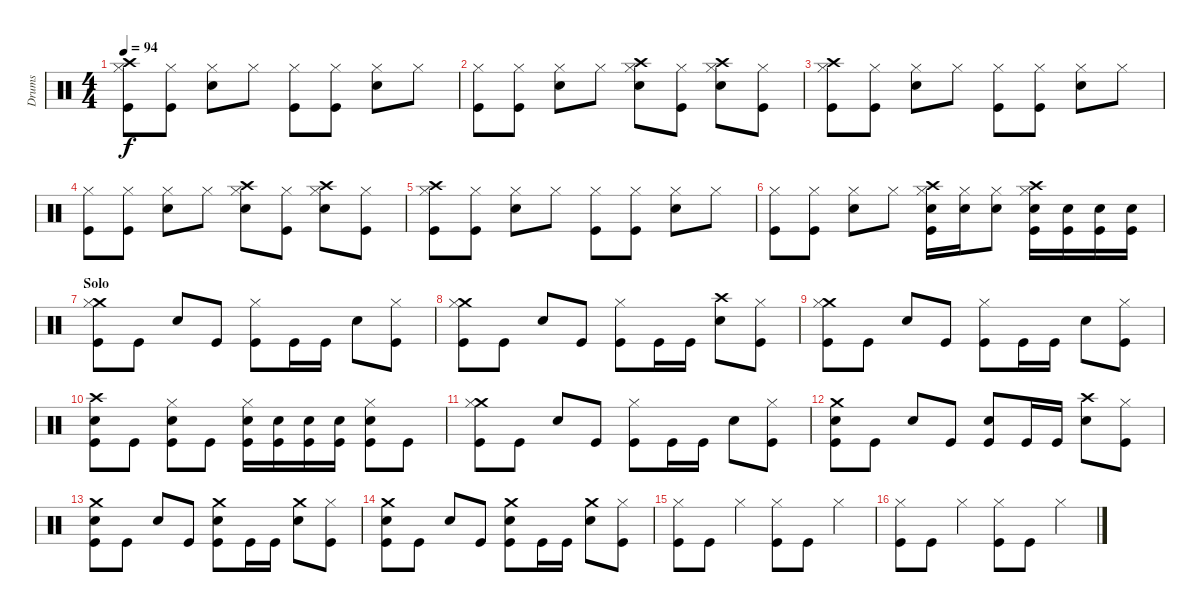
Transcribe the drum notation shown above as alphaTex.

\track ("Drums" "Drums") {instrument percussion}
\staff {score}
\articulation defaults
\ts (4 4)
\tempo 94
\clef neutral
\ks c
("Crash high (hit)" "Hi-Hat (closed)" "Kick (hit)").8{dy f} ("Hi-Hat (closed)" "Kick (hit)").8 ("Hi-Hat (closed)" "Snare (hit) 2").8 "Hi-Hat (closed)".8 ("Hi-Hat (closed)" "Kick (hit)").8 ("Hi-Hat (closed)" "Kick (hit)").8 ("Hi-Hat (closed)" "Snare (hit) 2").8 "Hi-Hat (closed)".8 |
("Hi-Hat (closed)" "Kick (hit)").8 ("Hi-Hat (closed)" "Kick (hit)").8 ("Hi-Hat (closed)" "Snare (hit) 2").8 "Hi-Hat (closed)".8 ("Crash high (hit)" "Hi-Hat (closed)" "Snare (hit) 2").8 ("Hi-Hat (closed)" "Kick (hit)").8 ("Crash high (hit)" "Hi-Hat (closed)" "Snare (hit) 2").8 ("Hi-Hat (closed)" "Kick (hit)").8 |
("Crash high (hit)" "Hi-Hat (closed)" "Kick (hit)").8 ("Hi-Hat (closed)" "Kick (hit)").8 ("Hi-Hat (closed)" "Snare (hit) 2").8 "Hi-Hat (closed)".8 ("Hi-Hat (closed)" "Kick (hit)").8 ("Hi-Hat (closed)" "Kick (hit)").8 ("Hi-Hat (closed)" "Snare (hit) 2").8 "Hi-Hat (closed)".8 |
("Hi-Hat (closed)" "Kick (hit)").8 ("Hi-Hat (closed)" "Kick (hit)").8 ("Hi-Hat (closed)" "Snare (hit) 2").8 "Hi-Hat (closed)".8 ("Crash high (hit)" "Hi-Hat (closed)" "Snare (hit) 2").8 ("Hi-Hat (closed)" "Kick (hit)").8 ("Crash high (hit)" "Hi-Hat (closed)" "Snare (hit) 2").8 ("Hi-Hat (closed)" "Kick (hit)").8 |
("Crash high (hit)" "Hi-Hat (closed)" "Kick (hit)").8 ("Hi-Hat (closed)" "Kick (hit)").8 ("Hi-Hat (closed)" "Snare (hit) 2").8 "Hi-Hat (closed)".8 ("Hi-Hat (closed)" "Kick (hit)").8 ("Hi-Hat (closed)" "Kick (hit)").8 ("Hi-Hat (closed)" "Snare (hit) 2").8 "Hi-Hat (closed)".8 |
("Hi-Hat (closed)" "Kick (hit)").8 ("Hi-Hat (closed)" "Kick (hit)").8 ("Hi-Hat (closed)" "Snare (hit) 2").8 "Hi-Hat (closed)".8 ("Crash high (hit)" "Hi-Hat (closed)" "Snare (hit) 2" "Kick (hit)").16 ("Hi-Hat (closed)" "Snare (hit) 2").16 ("Hi-Hat (closed)" "Snare (hit) 2").8 ("Crash high (hit)" "Hi-Hat (closed)" "Snare (hit) 2" "Kick (hit)").16 ("Snare (hit) 2" "Kick (hit)").16 ("Snare (hit) 2" "Kick (hit)").16 ("Snare (hit) 2" "Kick (hit)").16 |
\section ("" "Solo")
("Crash medium (hit)" "Hi-Hat (closed)" "Kick (hit)").8 "Kick (hit)".8 "Snare (hit) 2".8 "Kick (hit)".8 ("Hi-Hat (closed)" "Kick (hit)").8 "Kick (hit)".16 "Kick (hit)".16 "Snare (hit) 2".8 ("Hi-Hat (closed)" "Kick (hit)").8 |
("Crash medium (hit)" "Hi-Hat (closed)" "Kick (hit)").8 "Kick (hit)".8 "Snare (hit) 2".8 "Kick (hit)".8 ("Hi-Hat (closed)" "Kick (hit)").8 "Kick (hit)".16 "Kick (hit)".16 ("Crash high (hit)" "Snare (hit) 2").8 ("Hi-Hat (closed)" "Kick (hit)").8 |
("Crash medium (hit)" "Hi-Hat (closed)" "Kick (hit)").8 "Kick (hit)".8 "Snare (hit) 2".8 "Kick (hit)".8 ("Hi-Hat (closed)" "Kick (hit)").8 "Kick (hit)".16 "Kick (hit)".16 "Snare (hit) 2".8 ("Hi-Hat (closed)" "Kick (hit)").8 |
("Crash high (hit)" "Snare (hit) 2" "Kick (hit)").8 "Kick (hit)".8 ("Hi-Hat (closed)" "Snare (hit) 2" "Kick (hit)").8 "Kick (hit)".8 ("Hi-Hat (closed)" "Snare (hit) 2" "Kick (hit)").16 ("Snare (hit) 2" "Kick (hit)").16 ("Snare (hit) 2" "Kick (hit)").16 ("Snare (hit) 2" "Kick (hit)").16 ("Hi-Hat (closed)" "Snare (hit) 2" "Kick (hit)").8 "Kick (hit)".8 |
("Crash medium (hit)" "Hi-Hat (closed)" "Kick (hit)").8 "Kick (hit)".8 "Snare (hit) 2".8 "Kick (hit)".8 ("Hi-Hat (closed)" "Kick (hit)").8 "Kick (hit)".16 "Kick (hit)".16 "Snare (hit) 2".8 ("Hi-Hat (closed)" "Kick (hit)").8 |
("Crash medium (hit)" "Snare (hit) 2" "Kick (hit)").8 "Kick (hit)".8 "Snare (hit) 2".8 "Kick (hit)".8 ("Snare (hit) 2" "Kick (hit)").8 "Kick (hit)".16 "Kick (hit)".16 ("Crash high (hit)" "Snare (hit) 2").8 ("Hi-Hat (closed)" "Kick (hit)").8 |
("Crash medium (hit)" "Snare (hit) 2" "Kick (hit)").8 "Kick (hit)".8 "Snare (hit) 2".8 "Kick (hit)".8 ("Crash medium (hit)" "Snare (hit) 2" "Kick (hit)").8 "Kick (hit)".16 "Kick (hit)".16 ("Crash medium (hit)" "Snare (hit) 2").8 ("Hi-Hat (closed)" "Kick (hit)").8 |
("Crash medium (hit)" "Snare (hit) 2" "Kick (hit)").8 "Kick (hit)".8 "Snare (hit) 2".8 "Kick (hit)".8 ("Crash medium (hit)" "Snare (hit) 2" "Kick (hit)").8 "Kick (hit)".16 "Kick (hit)".16 ("Crash medium (hit)" "Snare (hit) 2").8 ("Hi-Hat (closed)" "Kick (hit)").8 |
("Hi-Hat (closed)" "Kick (hit)").8 "Kick (hit)".8 "Hi-Hat (closed)".4 ("Hi-Hat (closed)" "Kick (hit)").8 "Kick (hit)".8 "Hi-Hat (closed)".4 |
("Hi-Hat (closed)" "Kick (hit)").8 "Kick (hit)".8 "Hi-Hat (closed)".4 ("Hi-Hat (closed)" "Kick (hit)").8 "Kick (hit)".8 "Hi-Hat (closed)".4
